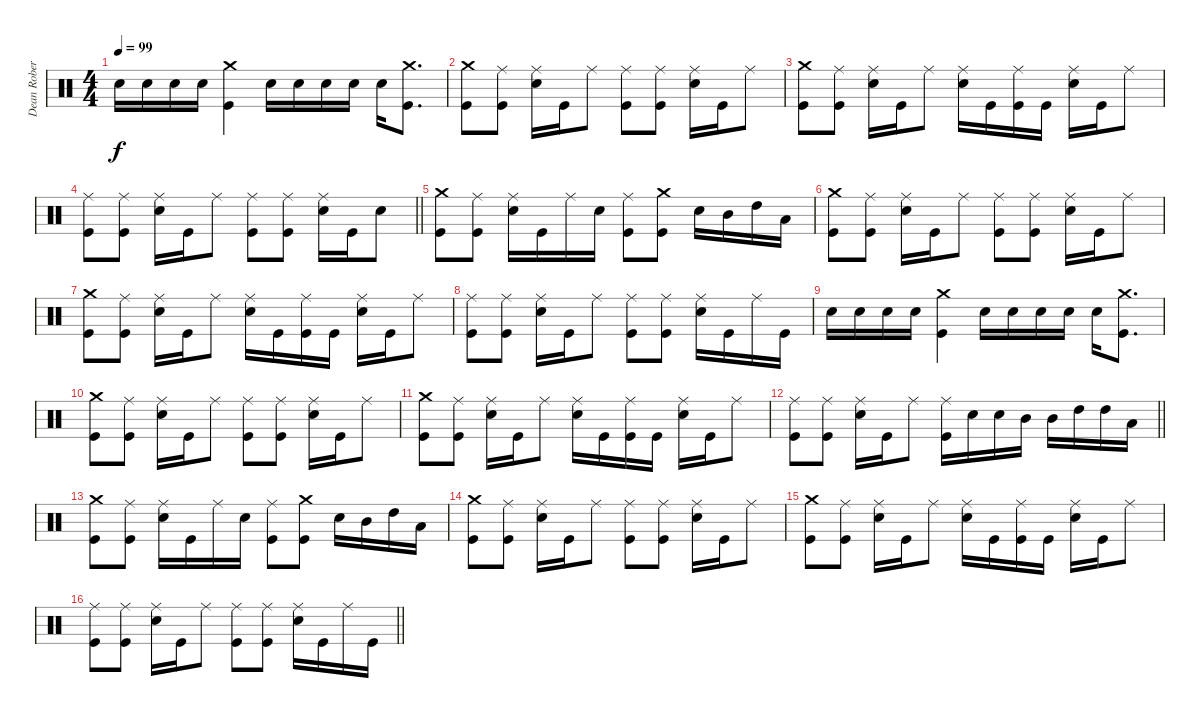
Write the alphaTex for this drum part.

\track ("Dean Roberts" "Dean Rober") {instrument percussion}
\staff {score}
\articulation defaults
\ts (4 4)
\tempo 99
\clef neutral
\ks c "Electric Snare (hit)".16{dy f} "Electric Snare (hit)".16 "Electric Snare (hit)".16 "Electric Snare (hit)".16
("Crash medium (hit)" "Kick (hit)").4 "Electric Snare (hit)".16 "Electric Snare (hit)".16 "Electric Snare (hit)".16 "Electric Snare (hit)".16 "Electric Snare (hit)".16 ("Crash medium (hit)" "Kick (hit)").8{d} |
("Crash medium (hit)" "Kick (hit)").8 ("Ride (middle)" "Kick (hit)").8 ("Ride (middle)" "Electric Snare (hit)").16 "Kick (hit)".16 "Ride (middle)".8 ("Ride (middle)" "Kick (hit)").8 ("Ride (middle)" "Kick (hit)").8 ("Ride (middle)" "Electric Snare (hit)").16 "Kick (hit)".16 "Ride (middle)".8 |
("Crash medium (hit)" "Kick (hit)").8 ("Ride (middle)" "Kick (hit)").8 ("Ride (middle)" "Electric Snare (hit)").16 "Kick (hit)".16 "Ride (middle)".8 ("Ride (middle)" "Electric Snare (hit)").16 "Kick (hit)".16 ("Ride (middle)" "Kick (hit)").16 "Kick (hit)".16 ("Ride (middle)" "Electric Snare (hit)").16 "Kick (hit)".16 "Ride (middle)".8 |
\barLineRight lightlight
("Ride (middle)" "Kick (hit)").8 ("Ride (middle)" "Kick (hit)").8 ("Ride (middle)" "Electric Snare (hit)").16 "Kick (hit)".16 "Ride (middle)".8 ("Ride (middle)" "Kick (hit)").8 ("Ride (middle)" "Kick (hit)").8 ("Ride (middle)" "Electric Snare (hit)").16 "Kick (hit)".16 "Electric Snare (hit)".8 |
("Crash medium (hit)" "Kick (hit)").8 ("Ride (middle)" "Kick (hit)").8 ("Ride (middle)" "Electric Snare (hit)").16 "Kick (hit)".16 "Ride (middle)".16 "Electric Snare (hit)".16 ("Ride (middle)" "Kick (hit)").8 ("Crash medium (hit)" "Kick (hit)").8 "Electric Snare (hit)".16 "Mid Tom (hit)".16 "High Tom (hit)".16 "Low Floor Tom (hit)".16 |
("Crash medium (hit)" "Kick (hit)").8 ("Ride (middle)" "Kick (hit)").8 ("Ride (middle)" "Electric Snare (hit)").16 "Kick (hit)".16 "Ride (middle)".8 ("Ride (middle)" "Kick (hit)").8 ("Ride (middle)" "Kick (hit)").8 ("Ride (middle)" "Electric Snare (hit)").16 "Kick (hit)".16 "Ride (middle)".8 |
("Crash medium (hit)" "Kick (hit)").8 ("Ride (middle)" "Kick (hit)").8 ("Ride (middle)" "Electric Snare (hit)").16 "Kick (hit)".16 "Ride (middle)".8 ("Ride (middle)" "Electric Snare (hit)").16 "Kick (hit)".16 ("Ride (middle)" "Kick (hit)").16 "Kick (hit)".16 ("Ride (middle)" "Electric Snare (hit)").16 "Kick (hit)".16 "Ride (middle)".8 |
("Ride (middle)" "Kick (hit)").8 ("Ride (middle)" "Kick (hit)").8 ("Ride (middle)" "Electric Snare (hit)").16 "Kick (hit)".16 "Ride (middle)".8 ("Ride (middle)" "Kick (hit)").8 ("Ride (middle)" "Kick (hit)").8 ("Ride (middle)" "Electric Snare (hit)").16 "Kick (hit)".16 "Ride (middle)".16 "Kick (hit)".16 |
"Electric Snare (hit)".16 "Electric Snare (hit)".16 "Electric Snare (hit)".16 "Electric Snare (hit)".16 ("Crash medium (hit)" "Kick (hit)").4 "Electric Snare (hit)".16 "Electric Snare (hit)".16 "Electric Snare (hit)".16 "Electric Snare (hit)".16 "Electric Snare (hit)".16 ("Crash medium (hit)" "Kick (hit)").8{d} |
("Crash medium (hit)" "Kick (hit)").8 ("Ride (middle)" "Kick (hit)").8 ("Ride (middle)" "Electric Snare (hit)").16 "Kick (hit)".16 "Ride (middle)".8 ("Ride (middle)" "Kick (hit)").8 ("Ride (middle)" "Kick (hit)").8 ("Ride (middle)" "Electric Snare (hit)").16 "Kick (hit)".16 "Ride (middle)".8 |
("Crash medium (hit)" "Kick (hit)").8 ("Ride (middle)" "Kick (hit)").8 ("Ride (middle)" "Electric Snare (hit)").16 "Kick (hit)".16 "Ride (middle)".8 ("Ride (middle)" "Electric Snare (hit)").16 "Kick (hit)".16 ("Ride (middle)" "Kick (hit)").16 "Kick (hit)".16 ("Ride (middle)" "Electric Snare (hit)").16 "Kick (hit)".16 "Ride (middle)".8 |
\barLineRight lightlight
("Ride (middle)" "Kick (hit)").8 ("Ride (middle)" "Kick (hit)").8 ("Ride (middle)" "Electric Snare (hit)").16 "Kick (hit)".16 "Ride (middle)".8 ("Ride (middle)" "Kick (hit)").16 "Electric Snare (hit)".16 "Electric Snare (hit)".16 "Mid Tom (hit)".16 "Mid Tom (hit)".16 "High Tom (hit)".16 "High Tom (hit)".16 "Low Floor Tom (hit)".16 |
("Crash medium (hit)" "Kick (hit)").8 ("Ride (middle)" "Kick (hit)").8 ("Ride (middle)" "Electric Snare (hit)").16 "Kick (hit)".16 "Ride (middle)".16 "Electric Snare (hit)".16 ("Ride (middle)" "Kick (hit)").8 ("Crash medium (hit)" "Kick (hit)").8 "Electric Snare (hit)".16 "Mid Tom (hit)".16 "High Tom (hit)".16 "Low Floor Tom (hit)".16 |
("Crash medium (hit)" "Kick (hit)").8 ("Ride (middle)" "Kick (hit)").8 ("Ride (middle)" "Electric Snare (hit)").16 "Kick (hit)".16 "Ride (middle)".8 ("Ride (middle)" "Kick (hit)").8 ("Ride (middle)" "Kick (hit)").8 ("Ride (middle)" "Electric Snare (hit)").16 "Kick (hit)".16 "Ride (middle)".8 |
("Crash medium (hit)" "Kick (hit)").8 ("Ride (middle)" "Kick (hit)").8 ("Ride (middle)" "Electric Snare (hit)").16 "Kick (hit)".16 "Ride (middle)".8 ("Ride (middle)" "Electric Snare (hit)").16 "Kick (hit)".16 ("Ride (middle)" "Kick (hit)").16 "Kick (hit)".16 ("Ride (middle)" "Electric Snare (hit)").16 "Kick (hit)".16 "Ride (middle)".8 |
\barLineRight lightlight
("Ride (middle)" "Kick (hit)").8 ("Ride (middle)" "Kick (hit)").8 ("Ride (middle)" "Electric Snare (hit)").16 "Kick (hit)".16 "Ride (middle)".8 ("Ride (middle)" "Kick (hit)").8 ("Ride (middle)" "Kick (hit)").8 ("Ride (middle)" "Electric Snare (hit)").16 "Kick (hit)".16 "Ride (middle)".16 "Kick (hit)".16
